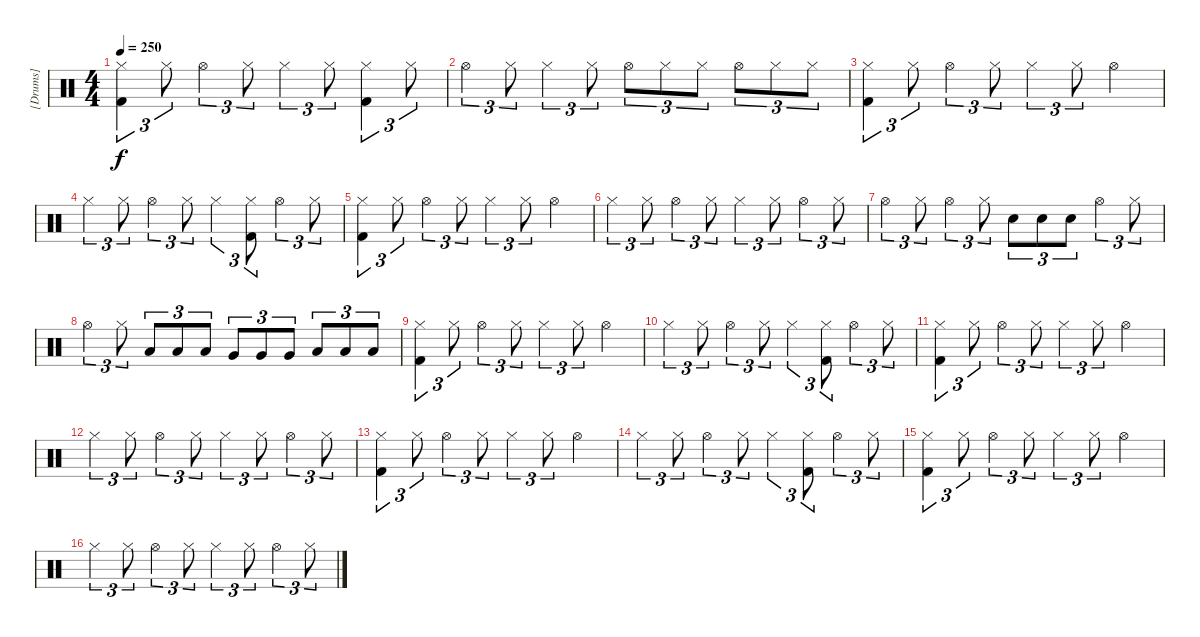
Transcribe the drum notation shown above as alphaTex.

\track ("[Drums]" "[Drums]") {instrument percussion}
\staff {score}
\articulation defaults
\ts (4 4)
\tempo 250
\clef neutral
\ks c
("Hi-Hat (closed)" "Kick (hit) 2").4{tu (3 2) dy f} "Hi-Hat (closed)".8{tu (3 2)} "Hi-Hat (open)".4{tu (3 2)} "Hi-Hat (closed)".8{tu (3 2)} "Hi-Hat (closed)".4{tu (3 2)} "Hi-Hat (closed)".8{tu (3 2)} ("Hi-Hat (closed)" "Kick (hit) 2").4{tu (3 2)} "Hi-Hat (closed)".8{tu (3 2)} |
"Hi-Hat (open)".4{tu (3 2)} "Hi-Hat (closed)".8{tu (3 2)} "Hi-Hat (closed)".4{tu (3 2)} "Hi-Hat (closed)".8{tu (3 2)} "Hi-Hat (open)".8{tu (3 2)} "Hi-Hat (closed)".8{tu (3 2)} "Hi-Hat (closed)".8{tu (3 2)} "Hi-Hat (open)".8{tu (3 2)} "Hi-Hat (closed)".8{tu (3 2)} "Hi-Hat (closed)".8{tu (3 2)} |
("Hi-Hat (closed)" "Kick (hit) 2").4{tu (3 2)} "Hi-Hat (closed)".8{tu (3 2)} "Hi-Hat (open)".4{tu (3 2)} "Hi-Hat (closed)".8{tu (3 2)} "Hi-Hat (closed)".4{tu (3 2)} "Hi-Hat (closed)".8{tu (3 2)} "Hi-Hat (open)".4 |
"Hi-Hat (closed)".4{tu (3 2)} "Hi-Hat (closed)".8{tu (3 2)} "Hi-Hat (open)".4{tu (3 2)} "Hi-Hat (closed)".8{tu (3 2)} "Hi-Hat (closed)".4{tu (3 2)} ("Hi-Hat (closed)" "Kick (hit) 2").8{tu (3 2)} "Hi-Hat (open)".4{tu (3 2)} "Hi-Hat (closed)".8{tu (3 2)} |
("Hi-Hat (closed)" "Kick (hit) 2").4{tu (3 2)} "Hi-Hat (closed)".8{tu (3 2)} "Hi-Hat (open)".4{tu (3 2)} "Hi-Hat (closed)".8{tu (3 2)} "Hi-Hat (closed)".4{tu (3 2)} "Hi-Hat (closed)".8{tu (3 2)} "Hi-Hat (open)".4 |
"Hi-Hat (closed)".4{tu (3 2)} "Hi-Hat (closed)".8{tu (3 2)} "Hi-Hat (open)".4{tu (3 2)} "Hi-Hat (closed)".8{tu (3 2)} "Hi-Hat (closed)".4{tu (3 2)} "Hi-Hat (closed)".8{tu (3 2)} "Hi-Hat (open)".4{tu (3 2)} "Hi-Hat (closed)".8{tu (3 2)} |
"Hi-Hat (open)".4{tu (3 2)} "Hi-Hat (closed)".8{tu (3 2)} "Hi-Hat (open)".4{tu (3 2)} "Hi-Hat (closed)".8{tu (3 2)} "Electric Snare (hit)".8{tu (3 2)} "Electric Snare (hit)".8{tu (3 2)} "Electric Snare (hit)".8{tu (3 2)} "Hi-Hat (open)".4{tu (3 2)} "Hi-Hat (closed)".8{tu (3 2)} |
"Hi-Hat (open)".4{tu (3 2)} "Hi-Hat (closed)".8{tu (3 2)} "Low Tom (hit)".8{tu (3 2)} "Low Tom (hit)".8{tu (3 2)} "Low Tom (hit)".8{tu (3 2)} "Very Low Tom (hit)".8{tu (3 2)} "Very Low Tom (hit)".8{tu (3 2)} "Very Low Tom (hit)".8{tu (3 2)} "Low Floor Tom (hit)".8{tu (3 2)} "Low Floor Tom (hit)".8{tu (3 2)} "Low Floor Tom (hit)".8{tu (3 2)} |
("Hi-Hat (closed)" "Kick (hit) 2").4{tu (3 2)} "Hi-Hat (closed)".8{tu (3 2)} "Hi-Hat (open)".4{tu (3 2)} "Hi-Hat (closed)".8{tu (3 2)} "Hi-Hat (closed)".4{tu (3 2)} "Hi-Hat (closed)".8{tu (3 2)} "Hi-Hat (open)".4 |
"Hi-Hat (closed)".4{tu (3 2)} "Hi-Hat (closed)".8{tu (3 2)} "Hi-Hat (open)".4{tu (3 2)} "Hi-Hat (closed)".8{tu (3 2)} "Hi-Hat (closed)".4{tu (3 2)} ("Hi-Hat (closed)" "Kick (hit) 2").8{tu (3 2)} "Hi-Hat (open)".4{tu (3 2)} "Hi-Hat (closed)".8{tu (3 2)} |
("Hi-Hat (closed)" "Kick (hit) 2").4{tu (3 2)} "Hi-Hat (closed)".8{tu (3 2)} "Hi-Hat (open)".4{tu (3 2)} "Hi-Hat (closed)".8{tu (3 2)} "Hi-Hat (closed)".4{tu (3 2)} "Hi-Hat (closed)".8{tu (3 2)} "Hi-Hat (open)".4 |
"Hi-Hat (closed)".4{tu (3 2)} "Hi-Hat (closed)".8{tu (3 2)} "Hi-Hat (open)".4{tu (3 2)} "Hi-Hat (closed)".8{tu (3 2)} "Hi-Hat (closed)".4{tu (3 2)} "Hi-Hat (closed)".8{tu (3 2)} "Hi-Hat (open)".4{tu (3 2)} "Hi-Hat (closed)".8{tu (3 2)} |
("Hi-Hat (closed)" "Kick (hit) 2").4{tu (3 2)} "Hi-Hat (closed)".8{tu (3 2)} "Hi-Hat (open)".4{tu (3 2)} "Hi-Hat (closed)".8{tu (3 2)} "Hi-Hat (closed)".4{tu (3 2)} "Hi-Hat (closed)".8{tu (3 2)} "Hi-Hat (open)".4 |
"Hi-Hat (closed)".4{tu (3 2)} "Hi-Hat (closed)".8{tu (3 2)} "Hi-Hat (open)".4{tu (3 2)} "Hi-Hat (closed)".8{tu (3 2)} "Hi-Hat (closed)".4{tu (3 2)} ("Hi-Hat (closed)" "Kick (hit) 2").8{tu (3 2)} "Hi-Hat (open)".4{tu (3 2)} "Hi-Hat (closed)".8{tu (3 2)} |
("Hi-Hat (closed)" "Kick (hit) 2").4{tu (3 2)} "Hi-Hat (closed)".8{tu (3 2)} "Hi-Hat (open)".4{tu (3 2)} "Hi-Hat (closed)".8{tu (3 2)} "Hi-Hat (closed)".4{tu (3 2)} "Hi-Hat (closed)".8{tu (3 2)} "Hi-Hat (open)".4 |
"Hi-Hat (closed)".4{tu (3 2)} "Hi-Hat (closed)".8{tu (3 2)} "Hi-Hat (open)".4{tu (3 2)} "Hi-Hat (closed)".8{tu (3 2)} "Hi-Hat (closed)".4{tu (3 2)} "Hi-Hat (closed)".8{tu (3 2)} "Hi-Hat (open)".4{tu (3 2)} "Hi-Hat (closed)".8{tu (3 2)}
